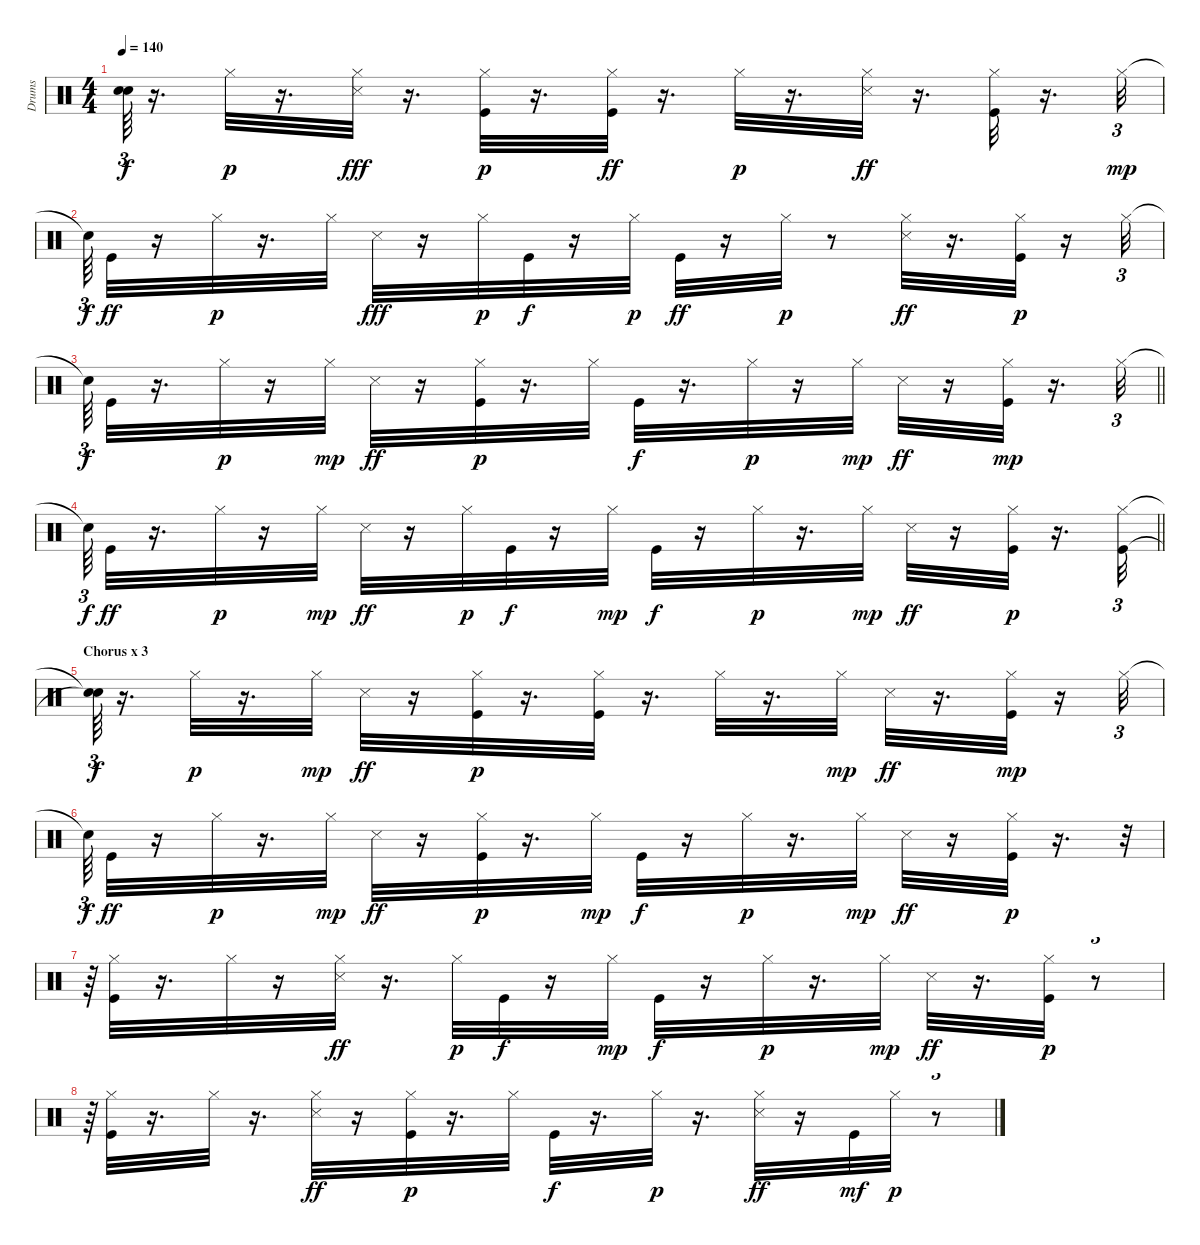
\track ("Drums" "Drums") {instrument percussion}
\staff {score}
\articulation defaults
\ts (4 4)
\tempo 140
\clef neutral
\ks c
("Snare (hit)"{t} "Snare (hit)"{t}).64{tu (3 2) dy f} r.16{d} "Hi-Hat (closed)".32{dy p} r.16{d} ("Hi-Hat (closed)" "Snare (side stick) 3").32{dy fff} r.16{d} ("Hi-Hat (closed)" "Kick (hit)").32{dy p} r.16{d} ("Hi-Hat (closed)" "Kick (hit)").32{dy ff} r.16{d} "Hi-Hat (closed)".32{dy p} r.16{d} ("Hi-Hat (closed)" "Snare (side stick) 3").32{dy ff} r.16{d} ("Hi-Hat (closed)" "Kick (hit)").32 r.16{d} "Hi-Hat (closed)".32{tu (3 2) dy mp} |
"Snare (hit)"{t}.64{tu (3 2) dy f} "Kick (hit)".32{dy ff} r.16 "Hi-Hat (closed)".32{dy p} r.16{d} "Hi-Hat (closed)".32 "Snare (side stick) 3".32{dy fff} r.16 "Hi-Hat (closed)".32{dy p} "Kick (hit)".32{dy f} r.16 "Hi-Hat (closed)".32{dy p} "Kick (hit)".32{dy ff} r.16 "Hi-Hat (closed)".32{dy p} r.8 ("Hi-Hat (closed)" "Snare (side stick) 3").32{dy ff} r.16{d} ("Kick (hit)" "Hi-Hat (closed)").32{dy p} r.16 "Hi-Hat (closed)".32{tu (3 2)} |
\barLineRight lightlight "Snare (hit)"{t}.64{tu (3 2) dy f} "Kick (hit)".32
r.16{d} "Hi-Hat (closed)".32{dy p} r.16 "Hi-Hat (closed)".32{dy mp} "Snare (side stick) 3".32{dy ff} r.16 ("Hi-Hat (closed)" "Kick (hit)").32{dy p} r.16{d} "Hi-Hat (closed)".32 "Kick (hit)".32{dy f} r.16{d} "Hi-Hat (closed)".32{dy p} r.16 "Hi-Hat (closed)".32{dy mp} "Snare (side stick) 3".32{dy ff} r.16 ("Hi-Hat (closed)" "Kick (hit)").32{dy mp} r.16{d} "Hi-Hat (closed)".32{tu (3 2)} |
\section ("" "")
\barLineRight lightlight "Snare (hit)"{t}.64{tu (3 2) dy f} "Kick (hit)".32{dy ff}
r.16{d} "Hi-Hat (closed)".32{dy p} r.16 "Hi-Hat (closed)".32{dy mp} "Snare (side stick) 3".32{dy ff} r.16 "Hi-Hat (closed)".32{dy p} "Kick (hit)".32{dy f} r.16 "Hi-Hat (closed)".32{dy mp} "Kick (hit)".32{dy f} r.16 "Hi-Hat (closed)".32{dy p} r.16{d} "Hi-Hat (closed)".32{dy mp} "Snare (side stick) 3".32{dy ff} r.16 ("Kick (hit)" "Hi-Hat (closed)").32{dy p} r.16{d} ("Hi-Hat (closed)" "Kick (hit)").32{tu (3 2)} |
\section ("" "Chorus x 3 ")
("Snare (hit)"{t} "Snare (hit)"{t}).64{tu (3 2) dy f} r.16{d} "Hi-Hat (closed)".32{dy p} r.16{d} "Hi-Hat (closed)".32{dy mp} "Snare (side stick) 3".32{dy ff} r.16 ("Hi-Hat (closed)" "Kick (hit)").32{dy p} r.16{d} ("Hi-Hat (closed)" "Kick (hit)").32 r.16{d} "Hi-Hat (closed)".32 r.16{d} "Hi-Hat (closed)".32{dy mp} "Snare (side stick) 3".32{dy ff} r.16{d} ("Hi-Hat (closed)" "Kick (hit)").32{dy mp} r.16 "Hi-Hat (closed)".32{tu (3 2)} |
"Snare (hit)"{t}.64{tu (3 2) dy f} "Kick (hit)".32{dy ff} r.16 "Hi-Hat (closed)".32{dy p} r.16{d} "Hi-Hat (closed)".32{dy mp} "Snare (side stick) 3".32{dy ff} r.16 ("Hi-Hat (closed)" "Kick (hit)").32{dy p} r.16{d} "Hi-Hat (closed)".32{dy mp} "Kick (hit)".32{dy f} r.16 "Hi-Hat (closed)".32{dy p} r.16{d} "Hi-Hat (closed)".32{dy mp} "Snare (side stick) 3".32{dy ff} r.16 ("Kick (hit)" "Hi-Hat (closed)").32{dy p} r.16{d} r.32{tu (3 2)} |
r.64{tu (3 2)} ("Hi-Hat (closed)" "Kick (hit)").32 r.16{d} "Hi-Hat (closed)".32 r.16 ("Hi-Hat (closed)" "Snare (side stick) 3").32{dy ff} r.16{d} "Hi-Hat (closed)".32{dy p} "Kick (hit)".32{dy f} r.16 "Hi-Hat (closed)".32{dy mp} "Kick (hit)".32{dy f} r.16 "Hi-Hat (closed)".32{dy p} r.16{d} "Hi-Hat (closed)".32{dy mp} "Snare (side stick) 3".32{dy ff} r.16{d} ("Hi-Hat (closed)" "Kick (hit)").32{dy p} r.8{tu (3 2)} |
r.64{tu (3 2)} ("Hi-Hat (closed)" "Kick (hit)").32 r.16{d} "Hi-Hat (closed)".32 r.16{d} ("Hi-Hat (closed)" "Snare (side stick) 3").32{dy ff} r.16 ("Hi-Hat (closed)" "Kick (hit)").32{dy p} r.16{d} "Hi-Hat (closed)".32 "Kick (hit)".32{dy f} r.16{d} "Hi-Hat (closed)".32{dy p} r.16{d} ("Hi-Hat (closed)" "Snare (side stick) 3").32{dy ff} r.16 "Kick (hit)".32{dy mf} "Hi-Hat (closed)".32{dy p} r.8{tu (3 2)}
